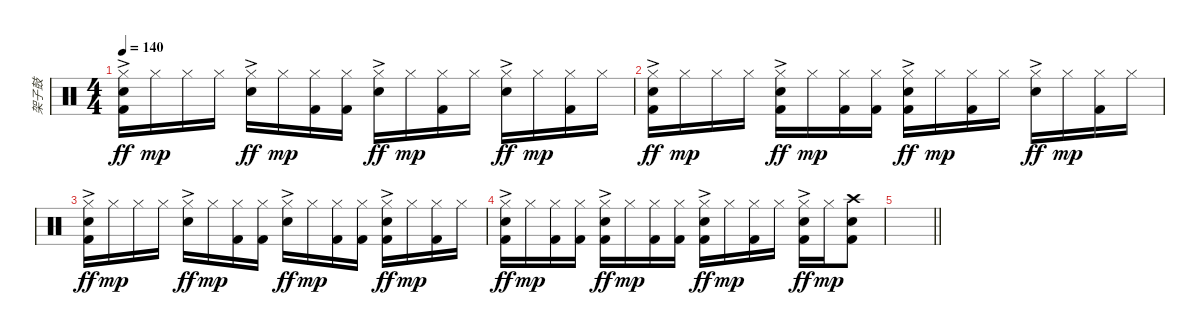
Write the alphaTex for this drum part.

\track ("架子鼓" "架子鼓") {instrument percussion}
\staff {score}
\articulation defaults
\ts (4 4)
\tempo 140
\clef neutral
\ks c
("Hi-Hat (closed)"{ac} "Electric Snare (hit)" "Kick (hit) 2").16{dy ff} "Hi-Hat (closed)".16{dy mp} "Hi-Hat (closed)".16 "Hi-Hat (closed)".16 ("Hi-Hat (closed)"{ac} "Electric Snare (hit)").16{dy ff} "Hi-Hat (closed)".16{dy mp} ("Hi-Hat (closed)" "Kick (hit) 2").16 ("Hi-Hat (closed)" "Kick (hit) 2").16 ("Hi-Hat (closed)"{ac} "Electric Snare (hit)").16{dy ff} "Hi-Hat (closed)".16{dy mp} ("Hi-Hat (closed)" "Kick (hit) 2").16 "Hi-Hat (closed)".16 ("Hi-Hat (closed)"{ac} "Electric Snare (hit)").16{dy ff} "Hi-Hat (closed)".16{dy mp} ("Hi-Hat (closed)" "Kick (hit) 2").16 "Hi-Hat (closed)".16 |
("Hi-Hat (closed)"{ac} "Electric Snare (hit)" "Kick (hit) 2").16{dy ff} "Hi-Hat (closed)".16{dy mp} "Hi-Hat (closed)".16 "Hi-Hat (closed)".16 ("Hi-Hat (closed)"{ac} "Electric Snare (hit)" "Kick (hit) 2").16{dy ff} "Hi-Hat (closed)".16{dy mp} ("Hi-Hat (closed)" "Kick (hit) 2").16 ("Hi-Hat (closed)" "Kick (hit) 2").16 ("Hi-Hat (closed)"{ac} "Electric Snare (hit)" "Kick (hit) 2").16{dy ff} "Hi-Hat (closed)".16{dy mp} ("Hi-Hat (closed)" "Kick (hit) 2").16 "Hi-Hat (closed)".16 ("Hi-Hat (closed)"{ac} "Electric Snare (hit)").16{dy ff} "Hi-Hat (closed)".16{dy mp} ("Hi-Hat (closed)" "Kick (hit) 2").16 "Hi-Hat (closed)".16 |
("Hi-Hat (closed)"{ac} "Electric Snare (hit)" "Kick (hit) 2").16{dy ff} "Hi-Hat (closed)".16{dy mp} "Hi-Hat (closed)".16 "Hi-Hat (closed)".16 ("Hi-Hat (closed)"{ac} "Electric Snare (hit)").16{dy ff} "Hi-Hat (closed)".16{dy mp} ("Hi-Hat (closed)" "Kick (hit) 2").16 ("Hi-Hat (closed)" "Kick (hit) 2").16 ("Hi-Hat (closed)"{ac} "Electric Snare (hit)").16{dy ff} "Hi-Hat (closed)".16{dy mp} ("Hi-Hat (closed)" "Kick (hit) 2").16 ("Hi-Hat (closed)" "Kick (hit) 2").16 ("Hi-Hat (closed)"{ac} "Electric Snare (hit)" "Kick (hit) 2").16{dy ff} "Hi-Hat (closed)".16{dy mp} ("Hi-Hat (closed)" "Kick (hit) 2").16 "Hi-Hat (closed)".16 |
("Hi-Hat (closed)"{ac} "Electric Snare (hit)" "Kick (hit) 2").16{dy ff} "Hi-Hat (closed)".16{dy mp} ("Hi-Hat (closed)" "Kick (hit) 2").16 ("Hi-Hat (closed)" "Kick (hit) 2").16 ("Hi-Hat (closed)"{ac} "Electric Snare (hit)" "Kick (hit) 2").16{dy ff} "Hi-Hat (closed)".16{dy mp} ("Hi-Hat (closed)" "Kick (hit) 2").16 ("Hi-Hat (closed)" "Kick (hit) 2").16 ("Hi-Hat (closed)"{ac} "Electric Snare (hit)" "Kick (hit) 2").16{dy ff} "Hi-Hat (closed)".16{dy mp} ("Hi-Hat (closed)" "Kick (hit) 2").16 "Hi-Hat (closed)".16 ("Hi-Hat (closed)"{ac} "Electric Snare (hit)" "Kick (hit) 2").16{dy ff} "Hi-Hat (closed)".16{dy mp} ("Crash high (hit)" "Electric Snare (hit)" "Kick (hit) 2").8 |
\barLineRight lightlight
